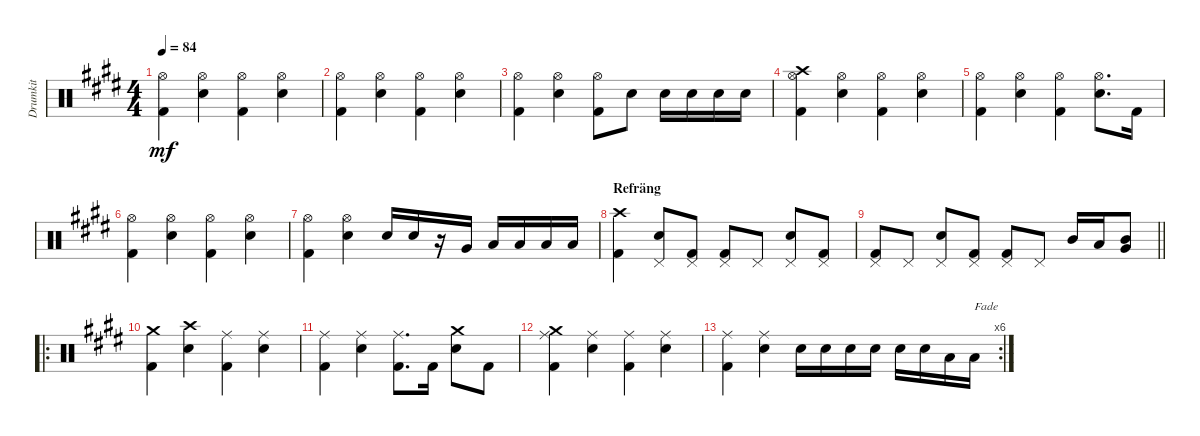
\track ("Drumkit" "Drumkit") {instrument percussion}
\staff {score}
\articulation defaults
\ts (4 4)
\tempo 84
\clef neutral
\ks c#minor
("Kick (hit) 2" "Hi-Hat (open)").4{dy mf} ("Hi-Hat (open)" "Snare (hit) 2").4 ("Hi-Hat (open)" "Kick (hit) 2").4 ("Hi-Hat (open)" "Snare (hit) 2").4 |
("Kick (hit) 2" "Hi-Hat (open)").4 ("Hi-Hat (open)" "Snare (hit) 2").4 ("Hi-Hat (open)" "Kick (hit) 2").4 ("Hi-Hat (open)" "Snare (hit) 2").4 |
("Kick (hit) 2" "Hi-Hat (open)").4 ("Hi-Hat (open)" "Snare (hit) 2").4 ("Hi-Hat (open)" "Kick (hit) 2").8 "Snare (hit) 2".8 "Snare (hit) 2".16 "Snare (hit) 2".16 "Snare (hit) 2".16 "Snare (hit) 2".16 |
("Kick (hit) 2" "Hi-Hat (open)" "Crash high (hit)").4 ("Hi-Hat (open)" "Snare (hit) 2").4 ("Hi-Hat (open)" "Kick (hit) 2").4 ("Hi-Hat (open)" "Snare (hit) 2").4 |
("Kick (hit) 2" "Hi-Hat (open)").4 ("Hi-Hat (open)" "Snare (hit) 2").4 ("Hi-Hat (open)" "Kick (hit) 2").4 ("Hi-Hat (open)" "Snare (hit) 2").8{d} "Kick (hit) 2".16 |
("Kick (hit) 2" "Hi-Hat (open)").4 ("Hi-Hat (open)" "Snare (hit) 2").4 ("Hi-Hat (open)" "Kick (hit) 2").4 ("Hi-Hat (open)" "Snare (hit) 2").4 |
("Kick (hit) 2" "Hi-Hat (open)").4 ("Hi-Hat (open)" "Snare (hit) 2").4 "Snare (hit) 2".16 "Snare (hit) 2".16 r.16 "Very Low Tom (hit)".16 "Low Tom (hit)".16 "Low Tom (hit)".16 "Low Tom (hit)".16 "Low Tom (hit)".16 |
\section ("" "Refräng")
("Kick (hit) 2" "Crash high (hit)").4 ("Snare (hit) 2" "Pedal Hi-Hat (hit)").8 ("Kick (hit) 2" "Pedal Hi-Hat (hit)").8 ("Kick (hit) 2" "Pedal Hi-Hat (hit)").8 "Pedal Hi-Hat (hit)".8 ("Snare (hit) 2" "Pedal Hi-Hat (hit)").8 ("Kick (hit) 2" "Pedal Hi-Hat (hit)").8 |
\barLineRight lightlight
("Kick (hit) 2" "Pedal Hi-Hat (hit)").8 "Pedal Hi-Hat (hit)".8 ("Snare (hit) 2" "Pedal Hi-Hat (hit)").8 ("Kick (hit) 2" "Pedal Hi-Hat (hit)").8 ("Kick (hit) 2" "Pedal Hi-Hat (hit)").8 "Pedal Hi-Hat (hit)".8 "Mid Tom (hit)".16 "Low Tom (hit)".16 ("Mid Tom (hit)" "Very Low Tom (hit)").8 |
\ro
("Kick (hit) 2" "Crash medium (hit)").4 ("Snare (hit) 2" "Crash high (hit)").4 ("Ride (middle)" "Kick (hit) 2").4 ("Ride (middle)" "Snare (hit) 2").4 |
("Kick (hit) 2" "Ride (middle)").4 ("Ride (middle)" "Snare (hit) 2").4 ("Ride (middle)" "Kick (hit) 2").8{d} "Kick (hit) 2".16 ("Crash medium (hit)" "Snare (hit) 2").8 "Kick (hit) 2".8 |
("Kick (hit) 2" "Crash medium (hit)" "Ride (middle)").4 ("Ride (middle)" "Snare (hit) 2").4 ("Ride (middle)" "Kick (hit) 2").4 ("Ride (middle)" "Snare (hit) 2").4 |
\rc 6
("Kick (hit) 2" "Ride (middle)").4 ("Ride (middle)" "Snare (hit) 2").4 "Snare (hit) 2".16 "Snare (hit) 2".16 "Snare (hit) 2".16 "Snare (hit) 2".16 "Snare (hit) 2".16 "Snare (hit) 2".16 "Low Tom (hit)".16 "Low Tom (hit)".16{txt "Fade"}
